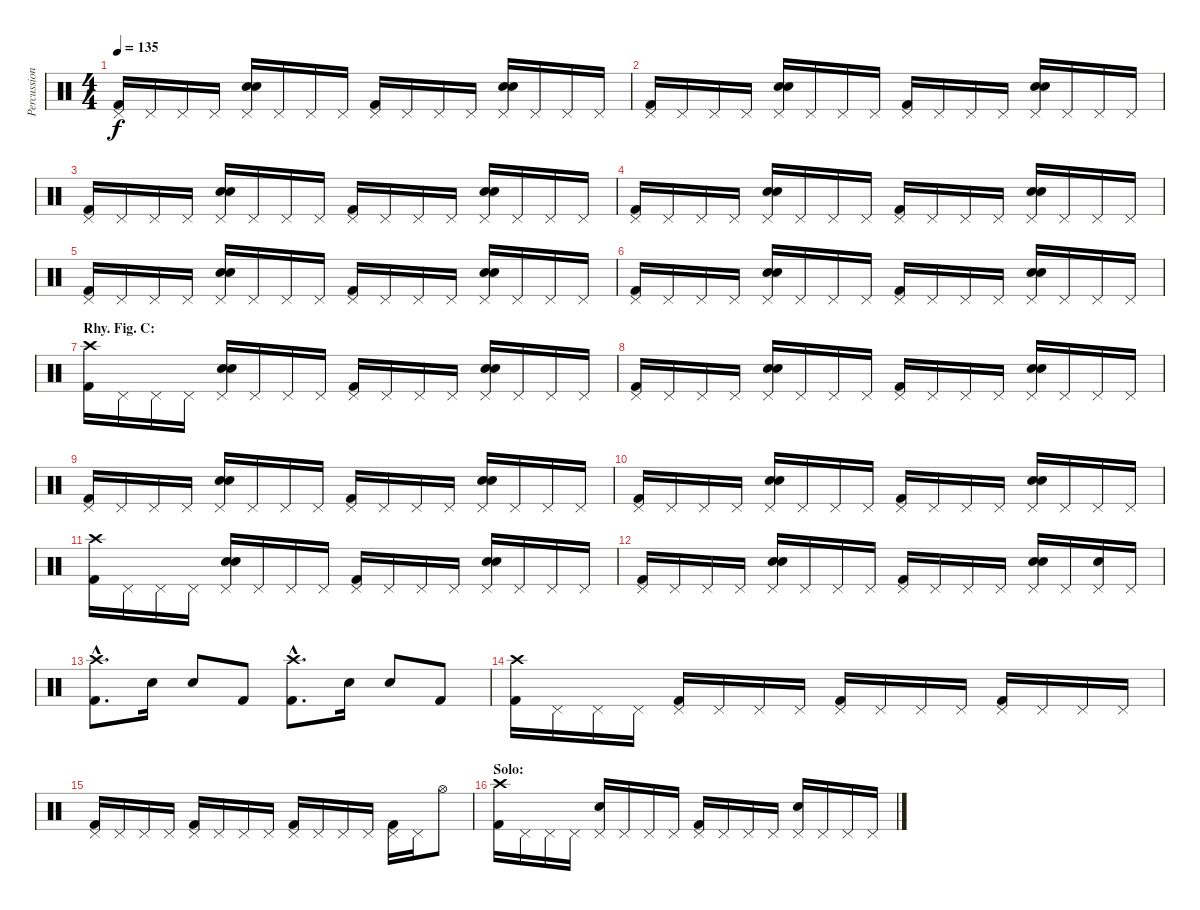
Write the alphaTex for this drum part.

\track ("Percussion" "Percussion") {instrument percussion}
\staff {score}
\articulation defaults
\ts (4 4)
\tempo 135
\clef neutral
\ks c
("Pedal Hi-Hat (hit)" "Kick (hit) 2").16{dy f} "Pedal Hi-Hat (hit)".16 "Pedal Hi-Hat (hit)".16 "Pedal Hi-Hat (hit)".16 ("Pedal Hi-Hat (hit)" "Hand Clap (hit)" "Snare (hit) 2").16 "Pedal Hi-Hat (hit)".16 "Pedal Hi-Hat (hit)".16 "Pedal Hi-Hat (hit)".16 ("Pedal Hi-Hat (hit)" "Kick (hit) 2").16 "Pedal Hi-Hat (hit)".16 "Pedal Hi-Hat (hit)".16 "Pedal Hi-Hat (hit)".16 ("Pedal Hi-Hat (hit)" "Hand Clap (hit)" "Snare (hit) 2").16 "Pedal Hi-Hat (hit)".16 "Pedal Hi-Hat (hit)".16 "Pedal Hi-Hat (hit)".16 |
("Pedal Hi-Hat (hit)" "Kick (hit) 2").16 "Pedal Hi-Hat (hit)".16 "Pedal Hi-Hat (hit)".16 "Pedal Hi-Hat (hit)".16 ("Pedal Hi-Hat (hit)" "Hand Clap (hit)" "Snare (hit) 2").16 "Pedal Hi-Hat (hit)".16 "Pedal Hi-Hat (hit)".16 "Pedal Hi-Hat (hit)".16 ("Pedal Hi-Hat (hit)" "Kick (hit) 2").16 "Pedal Hi-Hat (hit)".16 "Pedal Hi-Hat (hit)".16 "Pedal Hi-Hat (hit)".16 ("Pedal Hi-Hat (hit)" "Hand Clap (hit)" "Snare (hit) 2").16 "Pedal Hi-Hat (hit)".16 "Pedal Hi-Hat (hit)".16 "Pedal Hi-Hat (hit)".16 |
("Pedal Hi-Hat (hit)" "Kick (hit) 2").16 "Pedal Hi-Hat (hit)".16 "Pedal Hi-Hat (hit)".16 "Pedal Hi-Hat (hit)".16 ("Pedal Hi-Hat (hit)" "Hand Clap (hit)" "Snare (hit) 2").16 "Pedal Hi-Hat (hit)".16 "Pedal Hi-Hat (hit)".16 "Pedal Hi-Hat (hit)".16 ("Pedal Hi-Hat (hit)" "Kick (hit) 2").16 "Pedal Hi-Hat (hit)".16 "Pedal Hi-Hat (hit)".16 "Pedal Hi-Hat (hit)".16 ("Pedal Hi-Hat (hit)" "Hand Clap (hit)" "Snare (hit) 2").16 "Pedal Hi-Hat (hit)".16 "Pedal Hi-Hat (hit)".16 "Pedal Hi-Hat (hit)".16 |
("Pedal Hi-Hat (hit)" "Kick (hit) 2").16 "Pedal Hi-Hat (hit)".16 "Pedal Hi-Hat (hit)".16 "Pedal Hi-Hat (hit)".16 ("Pedal Hi-Hat (hit)" "Hand Clap (hit)" "Snare (hit) 2").16 "Pedal Hi-Hat (hit)".16 "Pedal Hi-Hat (hit)".16 "Pedal Hi-Hat (hit)".16 ("Pedal Hi-Hat (hit)" "Kick (hit) 2").16 "Pedal Hi-Hat (hit)".16 "Pedal Hi-Hat (hit)".16 "Pedal Hi-Hat (hit)".16 ("Pedal Hi-Hat (hit)" "Hand Clap (hit)" "Snare (hit) 2").16 "Pedal Hi-Hat (hit)".16 "Pedal Hi-Hat (hit)".16 "Pedal Hi-Hat (hit)".16 |
("Pedal Hi-Hat (hit)" "Kick (hit) 2").16 "Pedal Hi-Hat (hit)".16 "Pedal Hi-Hat (hit)".16 "Pedal Hi-Hat (hit)".16 ("Pedal Hi-Hat (hit)" "Hand Clap (hit)" "Snare (hit) 2").16 "Pedal Hi-Hat (hit)".16 "Pedal Hi-Hat (hit)".16 "Pedal Hi-Hat (hit)".16 ("Pedal Hi-Hat (hit)" "Kick (hit) 2").16 "Pedal Hi-Hat (hit)".16 "Pedal Hi-Hat (hit)".16 "Pedal Hi-Hat (hit)".16 ("Pedal Hi-Hat (hit)" "Hand Clap (hit)" "Snare (hit) 2").16 "Pedal Hi-Hat (hit)".16 "Pedal Hi-Hat (hit)".16 "Pedal Hi-Hat (hit)".16 |
("Pedal Hi-Hat (hit)" "Kick (hit) 2").16 "Pedal Hi-Hat (hit)".16 "Pedal Hi-Hat (hit)".16 "Pedal Hi-Hat (hit)".16 ("Pedal Hi-Hat (hit)" "Hand Clap (hit)" "Snare (hit) 2").16 "Pedal Hi-Hat (hit)".16 "Pedal Hi-Hat (hit)".16 "Pedal Hi-Hat (hit)".16 ("Pedal Hi-Hat (hit)" "Kick (hit) 2").16 "Pedal Hi-Hat (hit)".16 "Pedal Hi-Hat (hit)".16 "Pedal Hi-Hat (hit)".16 ("Pedal Hi-Hat (hit)" "Hand Clap (hit)" "Snare (hit) 2").16 "Pedal Hi-Hat (hit)".16 "Pedal Hi-Hat (hit)".16 "Pedal Hi-Hat (hit)".16 |
\section ("" "Rhy. Fig. C:")
("Crash high (hit)" "Kick (hit) 2").16 "Pedal Hi-Hat (hit)".16 "Pedal Hi-Hat (hit)".16 "Pedal Hi-Hat (hit)".16 ("Pedal Hi-Hat (hit)" "Hand Clap (hit)" "Snare (hit) 2").16 "Pedal Hi-Hat (hit)".16 "Pedal Hi-Hat (hit)".16 "Pedal Hi-Hat (hit)".16 ("Pedal Hi-Hat (hit)" "Kick (hit) 2").16 "Pedal Hi-Hat (hit)".16 "Pedal Hi-Hat (hit)".16 "Pedal Hi-Hat (hit)".16 ("Pedal Hi-Hat (hit)" "Hand Clap (hit)" "Snare (hit) 2").16 "Pedal Hi-Hat (hit)".16 "Pedal Hi-Hat (hit)".16 "Pedal Hi-Hat (hit)".16 |
("Pedal Hi-Hat (hit)" "Kick (hit) 2").16 "Pedal Hi-Hat (hit)".16 "Pedal Hi-Hat (hit)".16 "Pedal Hi-Hat (hit)".16 ("Pedal Hi-Hat (hit)" "Hand Clap (hit)" "Snare (hit) 2").16 "Pedal Hi-Hat (hit)".16 "Pedal Hi-Hat (hit)".16 "Pedal Hi-Hat (hit)".16 ("Pedal Hi-Hat (hit)" "Kick (hit) 2").16 "Pedal Hi-Hat (hit)".16 "Pedal Hi-Hat (hit)".16 "Pedal Hi-Hat (hit)".16 ("Pedal Hi-Hat (hit)" "Hand Clap (hit)" "Snare (hit) 2").16 "Pedal Hi-Hat (hit)".16 "Pedal Hi-Hat (hit)".16 "Pedal Hi-Hat (hit)".16 |
("Pedal Hi-Hat (hit)" "Kick (hit) 2").16 "Pedal Hi-Hat (hit)".16 "Pedal Hi-Hat (hit)".16 "Pedal Hi-Hat (hit)".16 ("Pedal Hi-Hat (hit)" "Hand Clap (hit)" "Snare (hit) 2").16 "Pedal Hi-Hat (hit)".16 "Pedal Hi-Hat (hit)".16 "Pedal Hi-Hat (hit)".16 ("Pedal Hi-Hat (hit)" "Kick (hit) 2").16 "Pedal Hi-Hat (hit)".16 "Pedal Hi-Hat (hit)".16 "Pedal Hi-Hat (hit)".16 ("Pedal Hi-Hat (hit)" "Hand Clap (hit)" "Snare (hit) 2").16 "Pedal Hi-Hat (hit)".16 "Pedal Hi-Hat (hit)".16 "Pedal Hi-Hat (hit)".16 |
("Pedal Hi-Hat (hit)" "Kick (hit) 2").16 "Pedal Hi-Hat (hit)".16 "Pedal Hi-Hat (hit)".16 "Pedal Hi-Hat (hit)".16 ("Pedal Hi-Hat (hit)" "Hand Clap (hit)" "Snare (hit) 2").16 "Pedal Hi-Hat (hit)".16 "Pedal Hi-Hat (hit)".16 "Pedal Hi-Hat (hit)".16 ("Pedal Hi-Hat (hit)" "Kick (hit) 2").16 "Pedal Hi-Hat (hit)".16 "Pedal Hi-Hat (hit)".16 "Pedal Hi-Hat (hit)".16 ("Pedal Hi-Hat (hit)" "Hand Clap (hit)" "Snare (hit) 2").16 "Pedal Hi-Hat (hit)".16 "Pedal Hi-Hat (hit)".16 "Pedal Hi-Hat (hit)".16 |
("Crash high (hit)" "Kick (hit) 2").16 "Pedal Hi-Hat (hit)".16 "Pedal Hi-Hat (hit)".16 "Pedal Hi-Hat (hit)".16 ("Pedal Hi-Hat (hit)" "Hand Clap (hit)" "Snare (hit) 2").16 "Pedal Hi-Hat (hit)".16 "Pedal Hi-Hat (hit)".16 "Pedal Hi-Hat (hit)".16 ("Pedal Hi-Hat (hit)" "Kick (hit) 2").16 "Pedal Hi-Hat (hit)".16 "Pedal Hi-Hat (hit)".16 "Pedal Hi-Hat (hit)".16 ("Pedal Hi-Hat (hit)" "Hand Clap (hit)" "Snare (hit) 2").16 "Pedal Hi-Hat (hit)".16 "Pedal Hi-Hat (hit)".16 "Pedal Hi-Hat (hit)".16 |
("Pedal Hi-Hat (hit)" "Kick (hit) 2").16 "Pedal Hi-Hat (hit)".16 "Pedal Hi-Hat (hit)".16 "Pedal Hi-Hat (hit)".16 ("Pedal Hi-Hat (hit)" "Hand Clap (hit)" "Snare (hit) 2").16 "Pedal Hi-Hat (hit)".16 "Pedal Hi-Hat (hit)".16 "Pedal Hi-Hat (hit)".16 ("Pedal Hi-Hat (hit)" "Kick (hit) 2").16 "Pedal Hi-Hat (hit)".16 "Pedal Hi-Hat (hit)".16 "Pedal Hi-Hat (hit)".16 ("Pedal Hi-Hat (hit)" "Hand Clap (hit)" "Snare (hit) 2").16 "Pedal Hi-Hat (hit)".16 ("Pedal Hi-Hat (hit)" "Snare (hit) 2").16 "Pedal Hi-Hat (hit)".16 |
("Crash high (hit)"{hac} "Kick (hit) 2"{hac}).8{d} "Snare (hit) 2".16 "Snare (hit) 2".8 "Kick (hit) 2".8 ("Crash high (hit)"{hac} "Kick (hit) 2"{hac}).8{d} "Snare (hit) 2".16 "Snare (hit) 2".8 "Kick (hit) 2".8 |
("Crash high (hit)" "Kick (hit) 2").16 "Pedal Hi-Hat (hit)".16 "Pedal Hi-Hat (hit)".16 "Pedal Hi-Hat (hit)".16 ("Pedal Hi-Hat (hit)" "Kick (hit) 2").16 "Pedal Hi-Hat (hit)".16 "Pedal Hi-Hat (hit)".16 "Pedal Hi-Hat (hit)".16 ("Pedal Hi-Hat (hit)" "Kick (hit) 2").16 "Pedal Hi-Hat (hit)".16 "Pedal Hi-Hat (hit)".16 "Pedal Hi-Hat (hit)".16 ("Pedal Hi-Hat (hit)" "Kick (hit) 2").16 "Pedal Hi-Hat (hit)".16 "Pedal Hi-Hat (hit)".16 "Pedal Hi-Hat (hit)".16 |
("Pedal Hi-Hat (hit)" "Kick (hit) 2").16 "Pedal Hi-Hat (hit)".16 "Pedal Hi-Hat (hit)".16 "Pedal Hi-Hat (hit)".16 ("Pedal Hi-Hat (hit)" "Kick (hit) 2").16 "Pedal Hi-Hat (hit)".16 "Pedal Hi-Hat (hit)".16 "Pedal Hi-Hat (hit)".16 ("Pedal Hi-Hat (hit)" "Kick (hit) 2").16 "Pedal Hi-Hat (hit)".16 "Pedal Hi-Hat (hit)".16 "Pedal Hi-Hat (hit)".16 ("Pedal Hi-Hat (hit)" "Kick (hit) 2").16 "Pedal Hi-Hat (hit)".16 "Hi-Hat (open)".8 |
\section ("" "Solo:")
("Crash high (hit)" "Kick (hit) 2").16 "Pedal Hi-Hat (hit)".16 "Pedal Hi-Hat (hit)".16 "Pedal Hi-Hat (hit)".16 ("Pedal Hi-Hat (hit)" "Snare (hit) 2").16 "Pedal Hi-Hat (hit)".16 "Pedal Hi-Hat (hit)".16 "Pedal Hi-Hat (hit)".16 ("Pedal Hi-Hat (hit)" "Kick (hit) 2").16 "Pedal Hi-Hat (hit)".16 "Pedal Hi-Hat (hit)".16 "Pedal Hi-Hat (hit)".16 ("Pedal Hi-Hat (hit)" "Snare (hit) 2").16 "Pedal Hi-Hat (hit)".16 "Pedal Hi-Hat (hit)".16 "Pedal Hi-Hat (hit)".16
